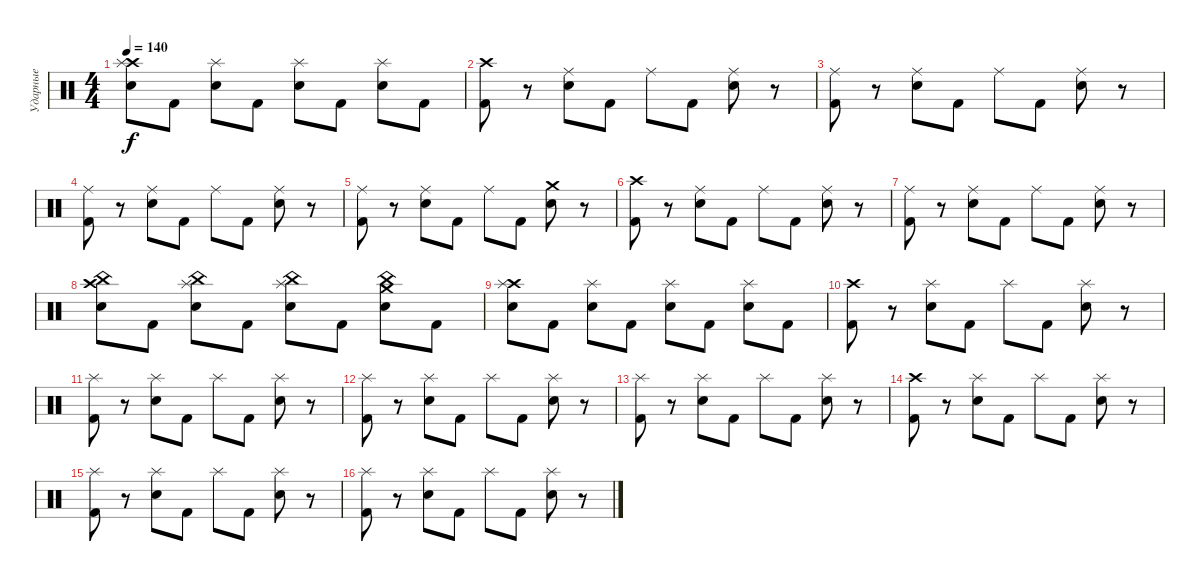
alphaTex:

\track ("Ударные" "Ударные") {instrument percussion}
\staff {score}
\articulation defaults
\ts (4 4)
\tempo 140
\clef neutral
\ks c
("Crash high (hit)" "Splash (hit)" "Electric Snare (hit)").8{dy f} "Kick (hit) 2".8 ("Splash (hit)" "Electric Snare (hit)").8 "Kick (hit) 2".8 ("Splash (hit)" "Electric Snare (hit)").8 "Kick (hit) 2".8 ("Splash (hit)" "Electric Snare (hit)").8 "Kick (hit) 2".8 |
("Crash high (hit)" "Kick (hit) 2").8 r.8 ("Ride (middle)" "Electric Snare (hit)").8 "Kick (hit) 2".8 "Ride (middle)".8 "Kick (hit) 2".8 ("Ride (middle)" "Electric Snare (hit)").8 r.8 |
("Ride (middle)" "Kick (hit) 2").8 r.8 ("Ride (middle)" "Electric Snare (hit)").8 "Kick (hit) 2".8 "Ride (middle)".8 "Kick (hit) 2".8 ("Ride (middle)" "Electric Snare (hit)").8 r.8 |
("Ride (middle)" "Kick (hit) 2").8 r.8 ("Ride (middle)" "Electric Snare (hit)").8 "Kick (hit) 2".8 "Ride (middle)".8 "Kick (hit) 2".8 ("Ride (middle)" "Electric Snare (hit)").8 r.8 |
("Ride (middle)" "Kick (hit) 2").8 r.8 ("Ride (middle)" "Electric Snare (hit)").8 "Kick (hit) 2".8 "Ride (middle)".8 "Kick (hit) 2".8 ("Crash medium (hit)" "Electric Snare (hit)").8 r.8 |
("Crash high (hit)" "Kick (hit) 2").8 r.8 ("Ride (middle)" "Electric Snare (hit)").8 "Kick (hit) 2".8 "Ride (middle)".8 "Kick (hit) 2".8 ("Ride (middle)" "Electric Snare (hit)").8 r.8 |
("Ride (middle)" "Kick (hit) 2").8 r.8 ("Ride (middle)" "Electric Snare (hit)").8 "Kick (hit) 2".8 "Ride (middle)".8 "Kick (hit) 2".8 ("Ride (middle)" "Electric Snare (hit)").8 r.8 |
("Crash high (hit)" "China (hit)" "Electric Snare (hit)").8 "Kick (hit) 2".8 ("Splash (hit)" "China (hit)" "Electric Snare (hit)").8 "Kick (hit) 2".8 ("Splash (hit)" "China (hit)" "Electric Snare (hit)").8 "Kick (hit) 2".8 ("Crash medium (hit)" "China (hit)" "Electric Snare (hit)").8 "Kick (hit) 2".8 |
("Crash high (hit)" "Splash (hit)" "Electric Snare (hit)").8 "Kick (hit) 2".8 ("Splash (hit)" "Electric Snare (hit)").8 "Kick (hit) 2".8 ("Splash (hit)" "Electric Snare (hit)").8 "Kick (hit) 2".8 ("Splash (hit)" "Electric Snare (hit)").8 "Kick (hit) 2".8 |
("Crash high (hit)" "Kick (hit) 2").8 r.8 ("Splash (hit)" "Electric Snare (hit)").8 "Kick (hit) 2".8 "Splash (hit)".8 "Kick (hit) 2".8 ("Splash (hit)" "Electric Snare (hit)").8 r.8 |
("Splash (hit)" "Kick (hit) 2").8 r.8 ("Splash (hit)" "Electric Snare (hit)").8 "Kick (hit) 2".8 "Splash (hit)".8 "Kick (hit) 2".8 ("Splash (hit)" "Electric Snare (hit)").8 r.8 |
("Splash (hit)" "Kick (hit) 2").8 r.8 ("Splash (hit)" "Electric Snare (hit)").8 "Kick (hit) 2".8 "Splash (hit)".8 "Kick (hit) 2".8 ("Splash (hit)" "Electric Snare (hit)").8 r.8 |
("Splash (hit)" "Kick (hit) 2").8 r.8 ("Splash (hit)" "Electric Snare (hit)").8 "Kick (hit) 2".8 "Splash (hit)".8 "Kick (hit) 2".8 ("Splash (hit)" "Electric Snare (hit)").8 r.8 |
("Crash high (hit)" "Kick (hit) 2").8 r.8 ("Splash (hit)" "Electric Snare (hit)").8 "Kick (hit) 2".8 "Splash (hit)".8 "Kick (hit) 2".8 ("Splash (hit)" "Electric Snare (hit)").8 r.8 |
("Splash (hit)" "Kick (hit) 2").8 r.8 ("Splash (hit)" "Electric Snare (hit)").8 "Kick (hit) 2".8 "Splash (hit)".8 "Kick (hit) 2".8 ("Splash (hit)" "Electric Snare (hit)").8 r.8 |
("Splash (hit)" "Kick (hit) 2").8 r.8 ("Splash (hit)" "Electric Snare (hit)").8 "Kick (hit) 2".8 "Splash (hit)".8 "Kick (hit) 2".8 ("Splash (hit)" "Electric Snare (hit)").8 r.8
